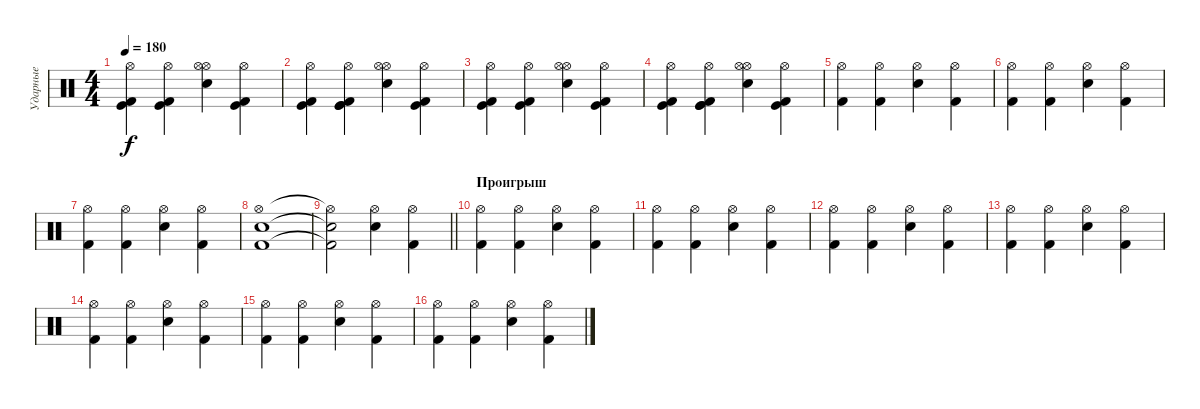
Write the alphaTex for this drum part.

\track ("Ударные" "Ударные") {instrument percussion}
\staff {score}
\articulation defaults
\ts (4 4)
\tempo 180
\clef neutral
\ks c
("Hi-Hat (open)" "Kick (hit) 2" "Kick (hit)").4{dy f} ("Hi-Hat (open)" "Kick (hit) 2" "Kick (hit)").4 ("Electric Snare (hit)" "Hi-Hat (open)" "Hi-Hat (open)").4 ("Hi-Hat (open)" "Kick (hit) 2" "Kick (hit)").4 |
("Hi-Hat (open)" "Kick (hit) 2" "Kick (hit)").4 ("Hi-Hat (open)" "Kick (hit) 2" "Kick (hit)" "Kick (hit)").4 ("Electric Snare (hit)" "Hi-Hat (open)" "Hi-Hat (open)").4 ("Hi-Hat (open)" "Kick (hit) 2" "Kick (hit)").4 |
("Hi-Hat (open)" "Kick (hit) 2" "Kick (hit)").4 ("Hi-Hat (open)" "Kick (hit) 2" "Kick (hit)").4 ("Electric Snare (hit)" "Hi-Hat (open)" "Hi-Hat (open)").4 ("Hi-Hat (open)" "Kick (hit) 2" "Kick (hit)").4 |
("Hi-Hat (open)" "Kick (hit) 2" "Kick (hit)").4 ("Hi-Hat (open)" "Kick (hit) 2" "Kick (hit)" "Kick (hit)").4 ("Electric Snare (hit)" "Hi-Hat (open)" "Hi-Hat (open)").4 ("Hi-Hat (open)" "Kick (hit) 2" "Kick (hit)").4 |
("Hi-Hat (open)" "Kick (hit) 2").4 ("Hi-Hat (open)" "Kick (hit) 2").4 ("Electric Snare (hit)" "Hi-Hat (open)").4 ("Hi-Hat (open)" "Kick (hit) 2").4 |
("Hi-Hat (open)" "Kick (hit) 2").4 ("Hi-Hat (open)" "Kick (hit) 2").4 ("Electric Snare (hit)" "Hi-Hat (open)").4 ("Hi-Hat (open)" "Kick (hit) 2").4 |
("Hi-Hat (open)" "Kick (hit) 2").4 ("Hi-Hat (open)" "Kick (hit) 2").4 ("Electric Snare (hit)" "Hi-Hat (open)").4 ("Hi-Hat (open)" "Kick (hit) 2").4 |
("Electric Snare (hit)" "Kick (hit) 2" "Hi-Hat (open)").1 |
\barLineRight lightlight
("Electric Snare (hit)"{t} "Kick (hit) 2"{t} "Hi-Hat (open)"{t}).2 ("Electric Snare (hit)" "Hi-Hat (open)").4 ("Kick (hit) 2" "Hi-Hat (open)").4 |
\section ("" "Проигрыш")
("Hi-Hat (open)" "Kick (hit) 2").4 ("Hi-Hat (open)" "Kick (hit) 2").4 ("Electric Snare (hit)" "Hi-Hat (open)").4 ("Hi-Hat (open)" "Kick (hit) 2").4 |
("Hi-Hat (open)" "Kick (hit) 2").4 ("Hi-Hat (open)" "Kick (hit) 2").4 ("Electric Snare (hit)" "Hi-Hat (open)").4 ("Hi-Hat (open)" "Kick (hit) 2").4 |
("Hi-Hat (open)" "Kick (hit) 2").4 ("Hi-Hat (open)" "Kick (hit) 2").4 ("Electric Snare (hit)" "Hi-Hat (open)").4 ("Hi-Hat (open)" "Kick (hit) 2").4 |
("Hi-Hat (open)" "Kick (hit) 2").4 ("Hi-Hat (open)" "Kick (hit) 2").4 ("Electric Snare (hit)" "Hi-Hat (open)").4 ("Hi-Hat (open)" "Kick (hit) 2").4 |
("Hi-Hat (open)" "Kick (hit) 2").4 ("Hi-Hat (open)" "Kick (hit) 2").4 ("Electric Snare (hit)" "Hi-Hat (open)").4 ("Hi-Hat (open)" "Kick (hit) 2").4 |
("Hi-Hat (open)" "Kick (hit) 2").4 ("Hi-Hat (open)" "Kick (hit) 2").4 ("Electric Snare (hit)" "Hi-Hat (open)").4 ("Hi-Hat (open)" "Kick (hit) 2").4 |
("Hi-Hat (open)" "Kick (hit) 2").4 ("Hi-Hat (open)" "Kick (hit) 2").4 ("Electric Snare (hit)" "Hi-Hat (open)").4 ("Hi-Hat (open)" "Kick (hit) 2").4
